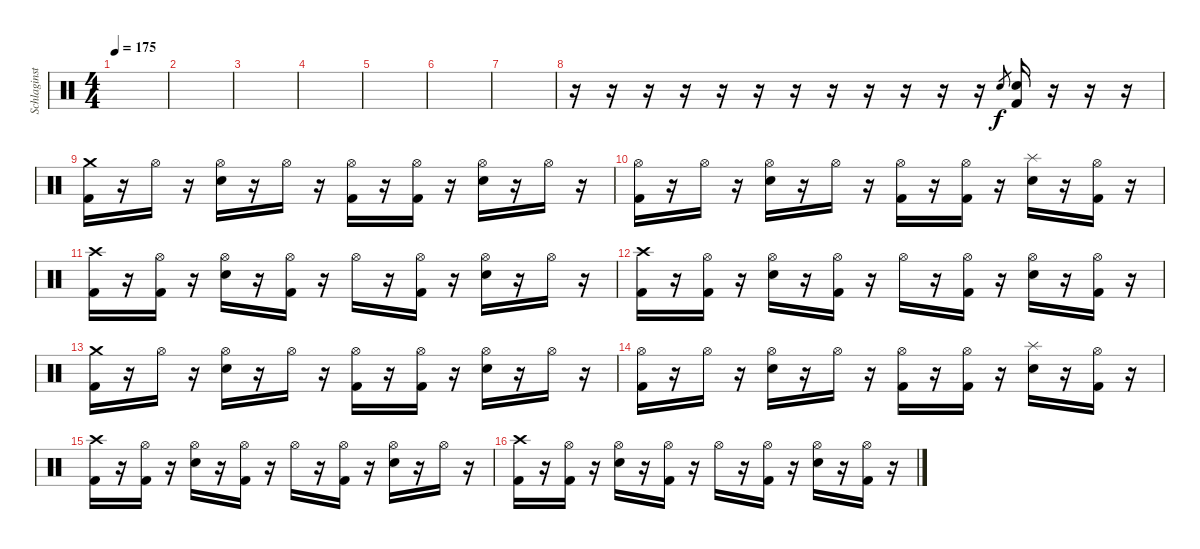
\track ("Schlaginstrumente - Auswahl" "Schlaginst") {instrument percussion}
\staff {score}
\articulation defaults
\ts (4 4)
\tempo 175
\clef neutral
\ks c
|
|
|
|
|
|
|
r.16 r.16 r.16 r.16 r.16 r.16 r.16 r.16 r.16 r.16 r.16 r.16 "Electric Snare (hit)".8{gr} ("Electric Snare (hit)" "Kick (hit) 2").16 r.16 r.16 r.16 |
("Crash medium (hit)" "Kick (hit) 2").16 r.16 "Hi-Hat (open)".16 r.16 ("Hi-Hat (open)" "Electric Snare (hit)").16 r.16 "Hi-Hat (open)".16 r.16 ("Hi-Hat (open)" "Kick (hit) 2").16 r.16 ("Hi-Hat (open)" "Kick (hit) 2").16 r.16 ("Hi-Hat (open)" "Electric Snare (hit)").16 r.16 "Hi-Hat (open)".16 r.16 |
("Hi-Hat (open)" "Kick (hit) 2").16 r.16 "Hi-Hat (open)".16 r.16 ("Hi-Hat (open)" "Electric Snare (hit)").16 r.16 "Hi-Hat (open)".16 r.16 ("Hi-Hat (open)" "Kick (hit) 2").16 r.16 ("Hi-Hat (open)" "Kick (hit) 2").16 r.16 ("Splash (hit)" "Electric Snare (hit)").16 r.16 ("Hi-Hat (open)" "Kick (hit) 2").16 r.16 |
("Crash high (hit)" "Kick (hit) 2").16 r.16 ("Hi-Hat (open)" "Kick (hit) 2").16 r.16 ("Hi-Hat (open)" "Electric Snare (hit)").16 r.16 ("Hi-Hat (open)" "Kick (hit) 2").16 r.16 "Hi-Hat (open)".16 r.16 ("Hi-Hat (open)" "Kick (hit) 2").16 r.16 ("Hi-Hat (open)" "Electric Snare (hit)").16 r.16 "Hi-Hat (open)".16 r.16 |
("Crash high (hit)" "Kick (hit) 2").16 r.16 ("Hi-Hat (open)" "Kick (hit) 2").16 r.16 ("Hi-Hat (open)" "Electric Snare (hit)").16 r.16 ("Hi-Hat (open)" "Kick (hit) 2").16 r.16 "Hi-Hat (open)".16 r.16 ("Hi-Hat (open)" "Kick (hit) 2").16 r.16 ("Hi-Hat (open)" "Electric Snare (hit)").16 r.16 ("Hi-Hat (open)" "Kick (hit) 2").16 r.16 |
("Crash medium (hit)" "Kick (hit) 2").16 r.16 "Hi-Hat (open)".16 r.16 ("Hi-Hat (open)" "Electric Snare (hit)").16 r.16 "Hi-Hat (open)".16 r.16 ("Hi-Hat (open)" "Kick (hit) 2").16 r.16 ("Hi-Hat (open)" "Kick (hit) 2").16 r.16 ("Hi-Hat (open)" "Electric Snare (hit)").16 r.16 "Hi-Hat (open)".16 r.16 |
("Hi-Hat (open)" "Kick (hit) 2").16 r.16 "Hi-Hat (open)".16 r.16 ("Hi-Hat (open)" "Electric Snare (hit)").16 r.16 "Hi-Hat (open)".16 r.16 ("Hi-Hat (open)" "Kick (hit) 2").16 r.16 ("Hi-Hat (open)" "Kick (hit) 2").16 r.16 ("Splash (hit)" "Electric Snare (hit)").16 r.16 ("Hi-Hat (open)" "Kick (hit) 2").16 r.16 |
("Crash high (hit)" "Kick (hit) 2").16 r.16 ("Hi-Hat (open)" "Kick (hit) 2").16 r.16 ("Hi-Hat (open)" "Electric Snare (hit)").16 r.16 ("Hi-Hat (open)" "Kick (hit) 2").16 r.16 "Hi-Hat (open)".16 r.16 ("Hi-Hat (open)" "Kick (hit) 2").16 r.16 ("Hi-Hat (open)" "Electric Snare (hit)").16 r.16 "Hi-Hat (open)".16 r.16 |
("Crash high (hit)" "Kick (hit) 2").16 r.16 ("Hi-Hat (open)" "Kick (hit) 2").16 r.16 ("Hi-Hat (open)" "Electric Snare (hit)").16 r.16 ("Hi-Hat (open)" "Kick (hit) 2").16 r.16 "Hi-Hat (open)".16 r.16 ("Hi-Hat (open)" "Kick (hit) 2").16 r.16 ("Hi-Hat (open)" "Electric Snare (hit)").16 r.16 ("Hi-Hat (open)" "Kick (hit) 2").16 r.16
